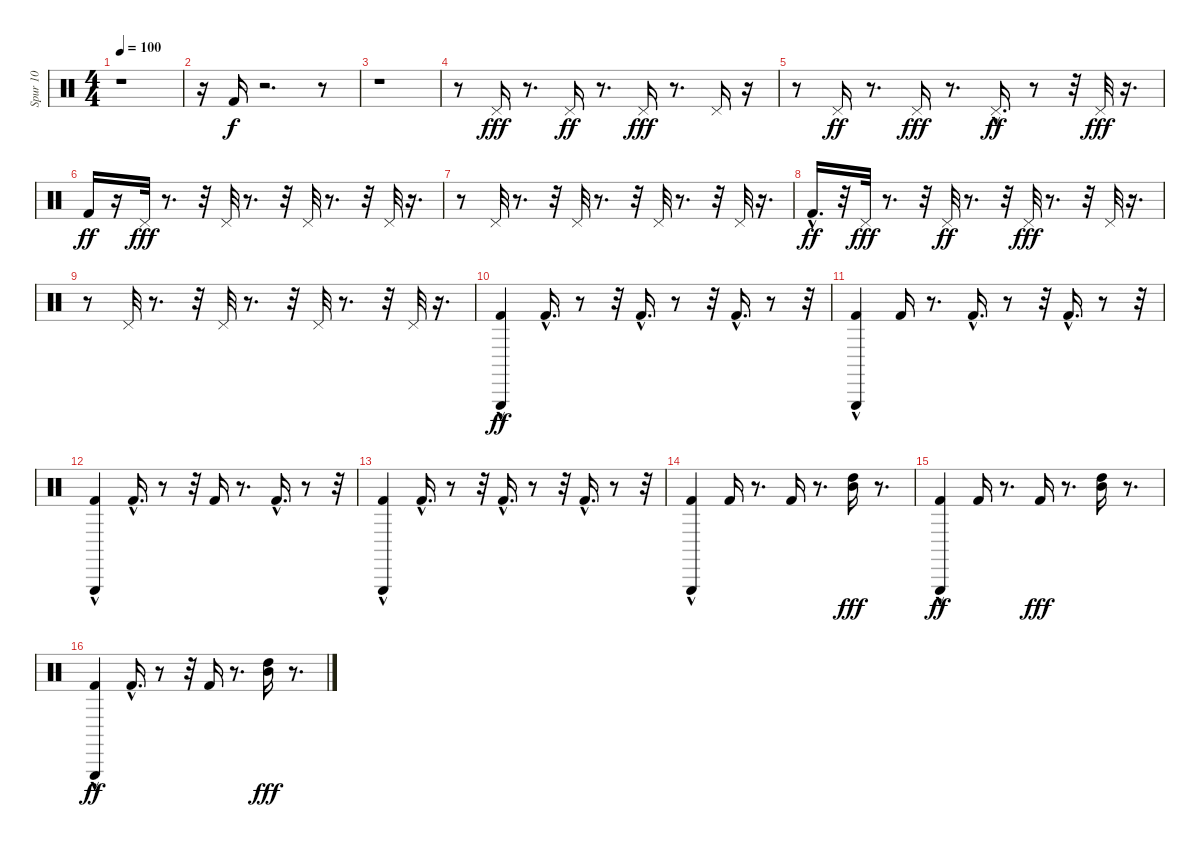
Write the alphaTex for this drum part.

\track ("Spur 10" "Spur 10") {instrument percussion}
\staff {score}
\articulation defaults
\ts (4 4)
\tempo 100
\clef neutral
\ks c
r.1{dy f} |
r.16 "Kick (hit) 2".16{volume 16 balance 8} r.2{d} r.8 |
r.1 |
r.8 "Pedal Hi-Hat (hit)".16{dy fff} r.8{d} "Pedal Hi-Hat (hit)".16{dy ff} r.8{d} "Pedal Hi-Hat (hit)".16{dy fff} r.8{d} "Pedal Hi-Hat (hit)".16 r.16 |
r.8 "Pedal Hi-Hat (hit)".16{dy ff} r.8{d} "Pedal Hi-Hat (hit)".16{dy fff} r.8{d} "Pedal Hi-Hat (hit)"{hac}.16{d dy ff} r.8 r.32 "Pedal Hi-Hat (hit)".32{dy fff} r.16{d} |
"Kick (hit) 2".16{dy ff} r.16 "Pedal Hi-Hat (hit)".32{dy fff} r.8{d} r.32 "Pedal Hi-Hat (hit)".32 r.8{d} r.32 "Pedal Hi-Hat (hit)".32 r.8{d} r.32 "Pedal Hi-Hat (hit)".32 r.16{d} |
r.8 "Pedal Hi-Hat (hit)".32 r.8{d} r.32 "Pedal Hi-Hat (hit)".32 r.8{d} r.32 "Pedal Hi-Hat (hit)".32 r.8{d} r.32 "Pedal Hi-Hat (hit)".32 r.16{d} |
"Kick (hit) 2"{hac}.16{d dy ff} r.32 "Pedal Hi-Hat (hit)".32{dy fff} r.8{d} r.32 "Pedal Hi-Hat (hit)".32{dy ff} r.8{d} r.32 "Pedal Hi-Hat (hit)".32{dy fff} r.8{d} r.32 "Pedal Hi-Hat (hit)".32 r.16{d} |
r.8 "Pedal Hi-Hat (hit)".32 r.8{d} r.32 "Pedal Hi-Hat (hit)".32 r.8{d} r.32 "Pedal Hi-Hat (hit)".32 r.8{d} r.32 "Pedal Hi-Hat (hit)".32 r.16{d} |
("Triangle (hit)"{hac} "Kick (hit) 2"{hac}).4{dy ff} "Kick (hit) 2"{hac}.16{d} r.8 r.32 "Kick (hit) 2"{hac}.16{d} r.8 r.32 "Kick (hit) 2"{hac}.16{d} r.8 r.32 |
("Triangle (hit)"{hac} "Kick (hit) 2"{hac}).4 "Kick (hit) 2".16 r.8{d} "Kick (hit) 2"{hac}.16{d} r.8 r.32 "Kick (hit) 2"{hac}.16{d} r.8 r.32 |
("Triangle (hit)"{hac} "Kick (hit) 2"{hac}).4 "Kick (hit) 2"{hac}.16{d} r.8 r.32 "Kick (hit) 2".16 r.8{d} "Kick (hit) 2"{hac}.16{d} r.8 r.32 |
("Triangle (hit)"{hac} "Kick (hit) 2"{hac}).4 "Kick (hit) 2"{hac}.16{d} r.8 r.32 "Kick (hit) 2"{hac}.16{d} r.8 r.32 "Kick (hit) 2"{hac}.16{d} r.8 r.32 |
("Kick (hit) 2"{hac} "Triangle (hit)"{hac}).4 "Kick (hit) 2".16 r.8{d} "Kick (hit) 2".16 r.8{d} ("Mid Tom (hit)" "High Tom (hit)").16{dy fff} r.8{d} |
("Kick (hit) 2"{hac} "Triangle (hit)"{hac}).4{dy ff} "Kick (hit) 2".16 r.8{d} "Kick (hit) 2".16{dy fff} r.8{d} ("High Tom (hit)" "Mid Tom (hit)").16 r.8{d} |
("Kick (hit) 2"{hac} "Triangle (hit)"{hac}).4{dy ff} "Kick (hit) 2"{hac}.16{d} r.8 r.32 "Kick (hit) 2".16 r.8{d} ("Mid Tom (hit)" "High Tom (hit)").16{dy fff} r.8{d}
